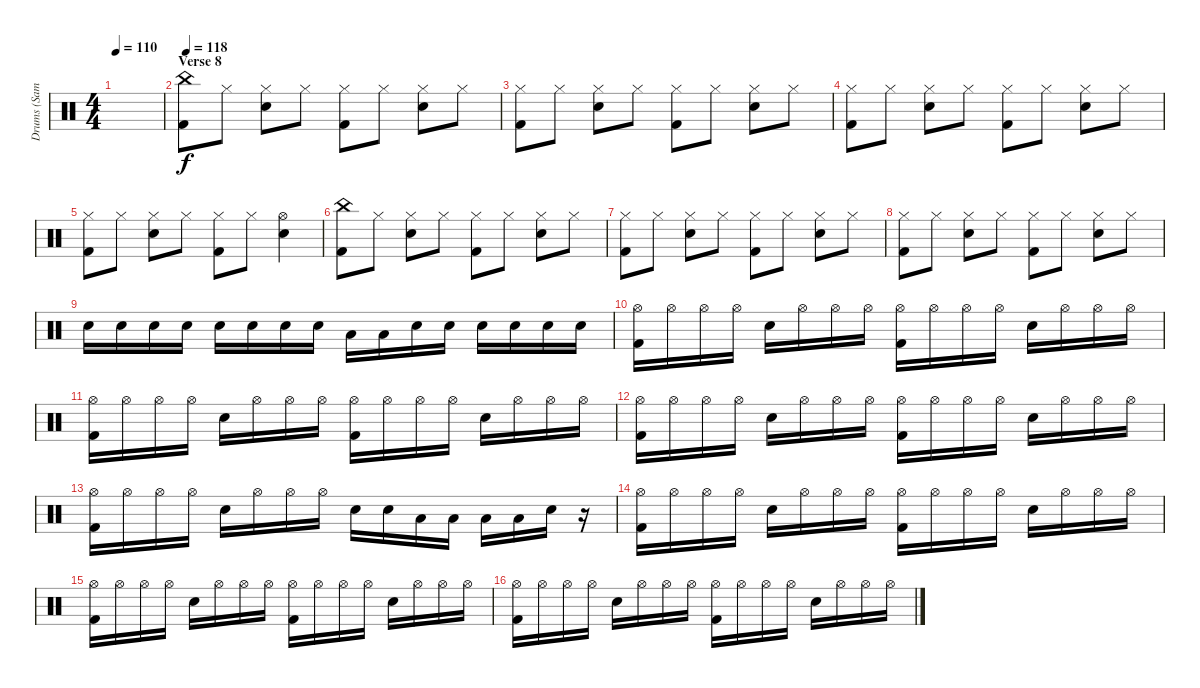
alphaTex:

\track ("Drums (Sam)" "Drums (Sam") {instrument percussion}
\staff {score}
\articulation defaults
\ts (4 4)
\tempo 110
\clef neutral
\ks c
|
\section ("" "Verse 8")
\tempo 118
("China (hit)" "Kick (hit) 2").8 "Hi-Hat (closed)".8 ("Hi-Hat (closed)" "Snare (hit) 2").8 "Hi-Hat (closed)".8 ("Hi-Hat (closed)" "Kick (hit) 2").8 "Hi-Hat (closed)".8 ("Hi-Hat (closed)" "Snare (hit) 2").8 "Hi-Hat (closed)".8 |
("Hi-Hat (closed)" "Kick (hit) 2").8 "Hi-Hat (closed)".8 ("Hi-Hat (closed)" "Snare (hit) 2").8 "Hi-Hat (closed)".8 ("Hi-Hat (closed)" "Kick (hit) 2").8 "Hi-Hat (closed)".8 ("Hi-Hat (closed)" "Snare (hit) 2").8 "Hi-Hat (closed)".8 |
("Hi-Hat (closed)" "Kick (hit) 2").8 "Hi-Hat (closed)".8 ("Hi-Hat (closed)" "Snare (hit) 2").8 "Hi-Hat (closed)".8 ("Hi-Hat (closed)" "Kick (hit) 2").8 "Hi-Hat (closed)".8 ("Hi-Hat (closed)" "Snare (hit) 2").8 "Hi-Hat (closed)".8 |
("Hi-Hat (closed)" "Kick (hit) 2").8 "Hi-Hat (closed)".8 ("Hi-Hat (closed)" "Snare (hit) 2").8 "Hi-Hat (closed)".8 ("Hi-Hat (closed)" "Kick (hit) 2").8 "Hi-Hat (closed)".8 ("Hi-Hat (open)" "Snare (hit) 2").4 |
("China (hit)" "Kick (hit) 2").8 "Hi-Hat (closed)".8 ("Hi-Hat (closed)" "Snare (hit) 2").8 "Hi-Hat (closed)".8 ("Hi-Hat (closed)" "Kick (hit) 2").8 "Hi-Hat (closed)".8 ("Hi-Hat (closed)" "Snare (hit) 2").8 "Hi-Hat (closed)".8 |
("Hi-Hat (closed)" "Kick (hit) 2").8 "Hi-Hat (closed)".8 ("Hi-Hat (closed)" "Snare (hit) 2").8 "Hi-Hat (closed)".8 ("Hi-Hat (closed)" "Kick (hit) 2").8 "Hi-Hat (closed)".8 ("Hi-Hat (closed)" "Snare (hit) 2").8 "Hi-Hat (closed)".8 |
("Hi-Hat (closed)" "Kick (hit) 2").8 "Hi-Hat (closed)".8 ("Hi-Hat (closed)" "Snare (hit) 2").8 "Hi-Hat (closed)".8 ("Hi-Hat (closed)" "Kick (hit) 2").8 "Hi-Hat (closed)".8 ("Hi-Hat (closed)" "Snare (hit) 2").8 "Hi-Hat (closed)".8 |
"Snare (hit) 2".16 "Snare (hit) 2".16 "Snare (hit) 2".16 "Snare (hit) 2".16 "Snare (hit) 2".16 "Snare (hit) 2".16 "Snare (hit) 2".16 "Snare (hit) 2".16 "Low Floor Tom (hit)".16 "Low Floor Tom (hit)".16 "Snare (hit) 2".16 "Snare (hit) 2".16 "Snare (hit) 2".16 "Snare (hit) 2".16 "Snare (hit) 2".16 "Snare (hit) 2".16 |
("Hi-Hat (open)" "Kick (hit) 2").16 "Hi-Hat (open)".16 "Hi-Hat (open)".16 "Hi-Hat (open)".16 "Snare (hit) 2".16 "Hi-Hat (open)".16 "Hi-Hat (open)".16 "Hi-Hat (open)".16 ("Hi-Hat (open)" "Kick (hit) 2").16 "Hi-Hat (open)".16 "Hi-Hat (open)".16 "Hi-Hat (open)".16 "Snare (hit) 2".16 "Hi-Hat (open)".16 "Hi-Hat (open)".16 "Hi-Hat (open)".16 |
("Hi-Hat (open)" "Kick (hit) 2").16 "Hi-Hat (open)".16 "Hi-Hat (open)".16 "Hi-Hat (open)".16 "Snare (hit) 2".16 "Hi-Hat (open)".16 "Hi-Hat (open)".16 "Hi-Hat (open)".16 ("Hi-Hat (open)" "Kick (hit) 2").16 "Hi-Hat (open)".16 "Hi-Hat (open)".16 "Hi-Hat (open)".16 "Snare (hit) 2".16 "Hi-Hat (open)".16 "Hi-Hat (open)".16 "Hi-Hat (open)".16 |
("Hi-Hat (open)" "Kick (hit) 2").16 "Hi-Hat (open)".16 "Hi-Hat (open)".16 "Hi-Hat (open)".16 "Snare (hit) 2".16 "Hi-Hat (open)".16 "Hi-Hat (open)".16 "Hi-Hat (open)".16 ("Hi-Hat (open)" "Kick (hit) 2").16 "Hi-Hat (open)".16 "Hi-Hat (open)".16 "Hi-Hat (open)".16 "Snare (hit) 2".16 "Hi-Hat (open)".16 "Hi-Hat (open)".16 "Hi-Hat (open)".16 |
("Hi-Hat (open)" "Kick (hit) 2").16 "Hi-Hat (open)".16 "Hi-Hat (open)".16 "Hi-Hat (open)".16 "Snare (hit) 2".16 "Hi-Hat (open)".16 "Hi-Hat (open)".16 "Hi-Hat (open)".16 "Snare (hit) 2".16 "Snare (hit) 2".16 "Low Floor Tom (hit)".16 "Low Floor Tom (hit)".16 "Low Tom (hit)".16 "Low Tom (hit)".16 "Snare (hit) 2".16 r.16 |
("Hi-Hat (open)" "Kick (hit) 2").16 "Hi-Hat (open)".16 "Hi-Hat (open)".16 "Hi-Hat (open)".16 "Snare (hit) 2".16 "Hi-Hat (open)".16 "Hi-Hat (open)".16 "Hi-Hat (open)".16 ("Hi-Hat (open)" "Kick (hit) 2").16 "Hi-Hat (open)".16 "Hi-Hat (open)".16 "Hi-Hat (open)".16 "Snare (hit) 2".16 "Hi-Hat (open)".16 "Hi-Hat (open)".16 "Hi-Hat (open)".16 |
("Hi-Hat (open)" "Kick (hit) 2").16 "Hi-Hat (open)".16 "Hi-Hat (open)".16 "Hi-Hat (open)".16 "Snare (hit) 2".16 "Hi-Hat (open)".16 "Hi-Hat (open)".16 "Hi-Hat (open)".16 ("Hi-Hat (open)" "Kick (hit) 2").16 "Hi-Hat (open)".16 "Hi-Hat (open)".16 "Hi-Hat (open)".16 "Snare (hit) 2".16 "Hi-Hat (open)".16 "Hi-Hat (open)".16 "Hi-Hat (open)".16 |
("Hi-Hat (open)" "Kick (hit) 2").16 "Hi-Hat (open)".16 "Hi-Hat (open)".16 "Hi-Hat (open)".16 "Snare (hit) 2".16 "Hi-Hat (open)".16 "Hi-Hat (open)".16 "Hi-Hat (open)".16 ("Hi-Hat (open)" "Kick (hit) 2").16 "Hi-Hat (open)".16 "Hi-Hat (open)".16 "Hi-Hat (open)".16 "Snare (hit) 2".16 "Hi-Hat (open)".16 "Hi-Hat (open)".16 "Hi-Hat (open)".16
